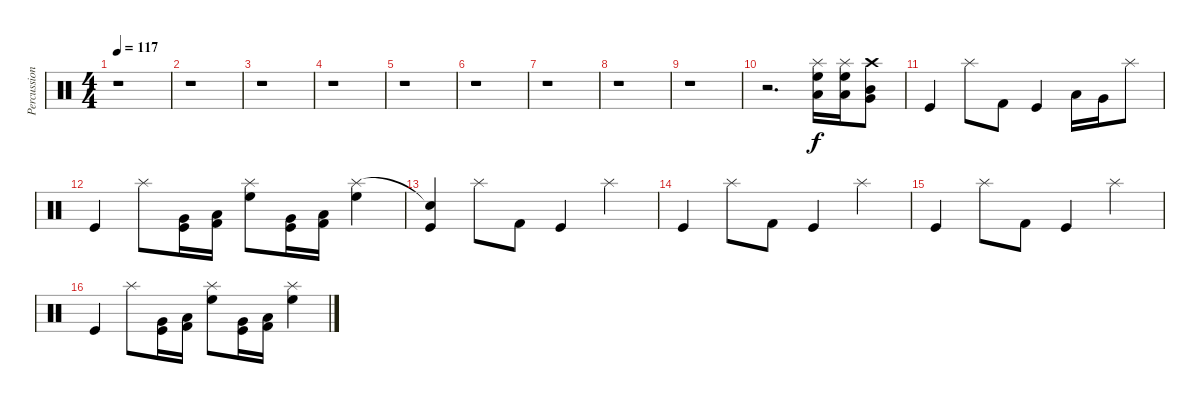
\track ("Percussions" "Percussion") {instrument percussion}
\staff {score}
\articulation defaults
\ts (4 4)
\tempo 117
\clef neutral
\ks c
r.1{dy f} |
r.1 |
r.1 |
r.1 |
r.1 |
r.1 |
r.1 |
r.1 |
r.1 |
r.2{d} ("Splash (hit)" "Low Tom (hit)" "High Floor Tom (hit)").16 ("Splash (hit)" "Low Tom (hit)" "High Floor Tom (hit)").16 ("Crash high (hit)" "Very Low Tom (hit)" "Mid Tom (hit)").8 |
"Kick (hit)".4 "Splash (hit)".8 "Kick (hit) 2".8 "Kick (hit)".4 "Low Tom (hit)".16 "Very Low Tom (hit)".16 "Splash (hit)".8 |
"Kick (hit)".4 "Splash (hit)".8 ("Very Low Tom (hit)" "Kick (hit)").16 ("Low Tom (hit)" "Kick (hit) 2").16 ("Splash (hit)" "High Floor Tom (hit)").8 ("Very Low Tom (hit)" "Kick (hit)").16 ("Low Tom (hit)" "Kick (hit) 2").16 ("Splash (hit)" "High Floor Tom (hit)").4 |
("Snare (hit)"{t} "Kick (hit)").4 "Splash (hit)".8 "Kick (hit) 2".8 "Kick (hit)".4 "Splash (hit)".4 |
"Kick (hit)".4 "Splash (hit)".8 "Kick (hit) 2".8 "Kick (hit)".4 "Splash (hit)".4 |
"Kick (hit)".4 "Splash (hit)".8 "Kick (hit) 2".8 "Kick (hit)".4 "Splash (hit)".4 |
"Kick (hit)".4 "Splash (hit)".8 ("Very Low Tom (hit)" "Kick (hit)").16 ("Low Tom (hit)" "Kick (hit) 2").16 ("Splash (hit)" "High Floor Tom (hit)").8 ("Very Low Tom (hit)" "Kick (hit)").16 ("Low Tom (hit)" "Kick (hit) 2").16 ("Splash (hit)" "High Floor Tom (hit)").4
